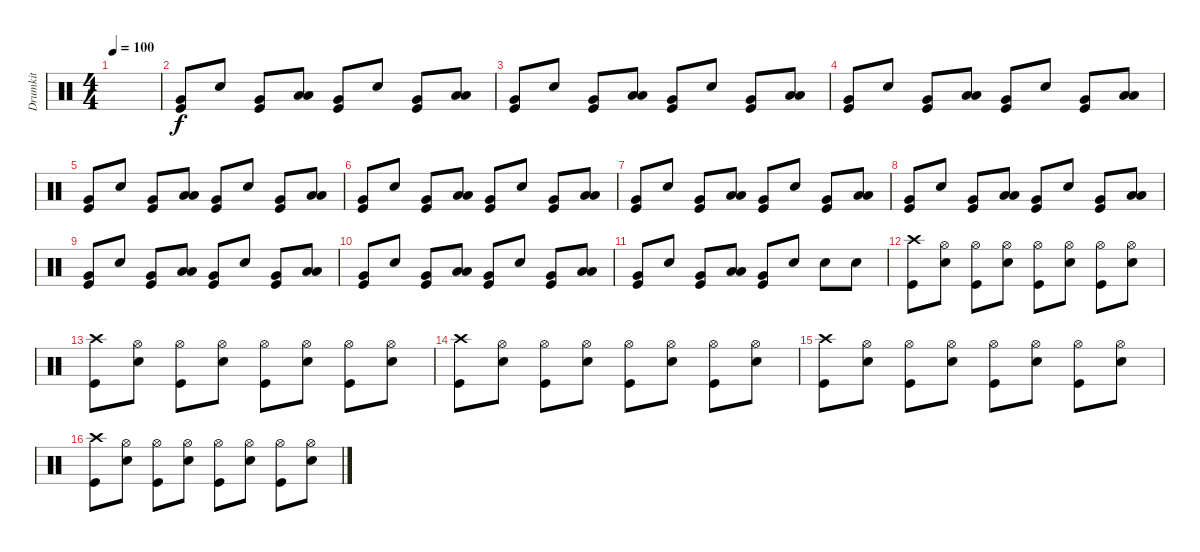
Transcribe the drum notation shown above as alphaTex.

\track ("Drumkit" "Drumkit") {instrument percussion}
\staff {score}
\articulation defaults
\ts (4 4)
\tempo 100
\clef neutral
\ks c
|
("Kick (hit)" "Very Low Tom (hit)").8 "Snare (hit) 2".8 ("Kick (hit)" "Very Low Tom (hit)").8 ("Low Floor Tom (hit)" "Low Tom (hit)").8 ("Kick (hit)" "Very Low Tom (hit)").8 "Snare (hit) 2".8 ("Kick (hit)" "Very Low Tom (hit)").8 ("Low Floor Tom (hit)" "Low Tom (hit)").8 |
("Kick (hit)" "Very Low Tom (hit)").8 "Snare (hit) 2".8 ("Kick (hit)" "Very Low Tom (hit)").8 ("Low Floor Tom (hit)" "Low Tom (hit)").8 ("Kick (hit)" "Very Low Tom (hit)").8 "Snare (hit) 2".8 ("Kick (hit)" "Very Low Tom (hit)").8 ("Low Floor Tom (hit)" "Low Tom (hit)").8 |
("Kick (hit)" "Very Low Tom (hit)").8 "Snare (hit) 2".8 ("Kick (hit)" "Very Low Tom (hit)").8 ("Low Floor Tom (hit)" "Low Tom (hit)").8 ("Kick (hit)" "Very Low Tom (hit)").8 "Snare (hit) 2".8 ("Kick (hit)" "Very Low Tom (hit)").8 ("Low Floor Tom (hit)" "Low Tom (hit)").8 |
("Kick (hit)" "Very Low Tom (hit)").8 "Snare (hit) 2".8 ("Kick (hit)" "Very Low Tom (hit)").8 ("Low Floor Tom (hit)" "Low Tom (hit)").8 ("Kick (hit)" "Very Low Tom (hit)").8 "Snare (hit) 2".8 ("Kick (hit)" "Very Low Tom (hit)").8 ("Low Floor Tom (hit)" "Low Tom (hit)").8 |
("Kick (hit)" "Very Low Tom (hit)").8 "Snare (hit) 2".8 ("Kick (hit)" "Very Low Tom (hit)").8 ("Low Floor Tom (hit)" "Low Tom (hit)").8 ("Kick (hit)" "Very Low Tom (hit)").8 "Snare (hit) 2".8 ("Kick (hit)" "Very Low Tom (hit)").8 ("Low Floor Tom (hit)" "Low Tom (hit)").8 |
("Kick (hit)" "Very Low Tom (hit)").8 "Snare (hit) 2".8 ("Kick (hit)" "Very Low Tom (hit)").8 ("Low Floor Tom (hit)" "Low Tom (hit)").8 ("Kick (hit)" "Very Low Tom (hit)").8 "Snare (hit) 2".8 ("Kick (hit)" "Very Low Tom (hit)").8 ("Low Floor Tom (hit)" "Low Tom (hit)").8 |
("Kick (hit)" "Very Low Tom (hit)").8 "Snare (hit) 2".8 ("Kick (hit)" "Very Low Tom (hit)").8 ("Low Floor Tom (hit)" "Low Tom (hit)").8 ("Kick (hit)" "Very Low Tom (hit)").8 "Snare (hit) 2".8 ("Kick (hit)" "Very Low Tom (hit)").8 ("Low Floor Tom (hit)" "Low Tom (hit)").8 |
("Kick (hit)" "Very Low Tom (hit)").8 "Snare (hit) 2".8 ("Kick (hit)" "Very Low Tom (hit)").8 ("Low Floor Tom (hit)" "Low Tom (hit)").8 ("Kick (hit)" "Very Low Tom (hit)").8 "Snare (hit) 2".8 ("Kick (hit)" "Very Low Tom (hit)").8 ("Low Floor Tom (hit)" "Low Tom (hit)").8 |
("Kick (hit)" "Very Low Tom (hit)").8 "Snare (hit) 2".8 ("Kick (hit)" "Very Low Tom (hit)").8 ("Low Floor Tom (hit)" "Low Tom (hit)").8 ("Kick (hit)" "Very Low Tom (hit)").8 "Snare (hit) 2".8 ("Kick (hit)" "Very Low Tom (hit)").8 ("Low Floor Tom (hit)" "Low Tom (hit)").8 |
("Kick (hit)" "Very Low Tom (hit)").8 "Snare (hit) 2".8 ("Kick (hit)" "Very Low Tom (hit)").8 ("Low Floor Tom (hit)" "Low Tom (hit)").8 ("Kick (hit)" "Very Low Tom (hit)").8 "Snare (hit) 2".8 "Snare (hit) 2".8 "Snare (hit) 2".8 |
("Kick (hit)" "Crash high (hit)").8 ("Hi-Hat (open)" "Snare (hit) 2").8 ("Hi-Hat (open)" "Kick (hit)").8 ("Hi-Hat (open)" "Snare (hit) 2").8 ("Hi-Hat (open)" "Kick (hit)").8 ("Hi-Hat (open)" "Snare (hit) 2").8 ("Hi-Hat (open)" "Kick (hit)").8 ("Hi-Hat (open)" "Snare (hit) 2").8 |
("Kick (hit)" "Crash high (hit)").8 ("Hi-Hat (open)" "Snare (hit) 2").8 ("Hi-Hat (open)" "Kick (hit)").8 ("Hi-Hat (open)" "Snare (hit) 2").8 ("Hi-Hat (open)" "Kick (hit)").8 ("Hi-Hat (open)" "Snare (hit) 2").8 ("Hi-Hat (open)" "Kick (hit)").8 ("Hi-Hat (open)" "Snare (hit) 2").8 |
("Kick (hit)" "Crash high (hit)").8 ("Hi-Hat (open)" "Snare (hit) 2").8 ("Hi-Hat (open)" "Kick (hit)").8 ("Hi-Hat (open)" "Snare (hit) 2").8 ("Hi-Hat (open)" "Kick (hit)").8 ("Hi-Hat (open)" "Snare (hit) 2").8 ("Hi-Hat (open)" "Kick (hit)").8 ("Hi-Hat (open)" "Snare (hit) 2").8 |
("Kick (hit)" "Crash high (hit)").8 ("Hi-Hat (open)" "Snare (hit) 2").8 ("Hi-Hat (open)" "Kick (hit)").8 ("Hi-Hat (open)" "Snare (hit) 2").8 ("Hi-Hat (open)" "Kick (hit)").8 ("Hi-Hat (open)" "Snare (hit) 2").8 ("Hi-Hat (open)" "Kick (hit)").8 ("Hi-Hat (open)" "Snare (hit) 2").8 |
("Kick (hit)" "Crash high (hit)").8 ("Hi-Hat (open)" "Snare (hit) 2").8 ("Hi-Hat (open)" "Kick (hit)").8 ("Hi-Hat (open)" "Snare (hit) 2").8 ("Hi-Hat (open)" "Kick (hit)").8 ("Hi-Hat (open)" "Snare (hit) 2").8 ("Hi-Hat (open)" "Kick (hit)").8 ("Hi-Hat (open)" "Snare (hit) 2").8
